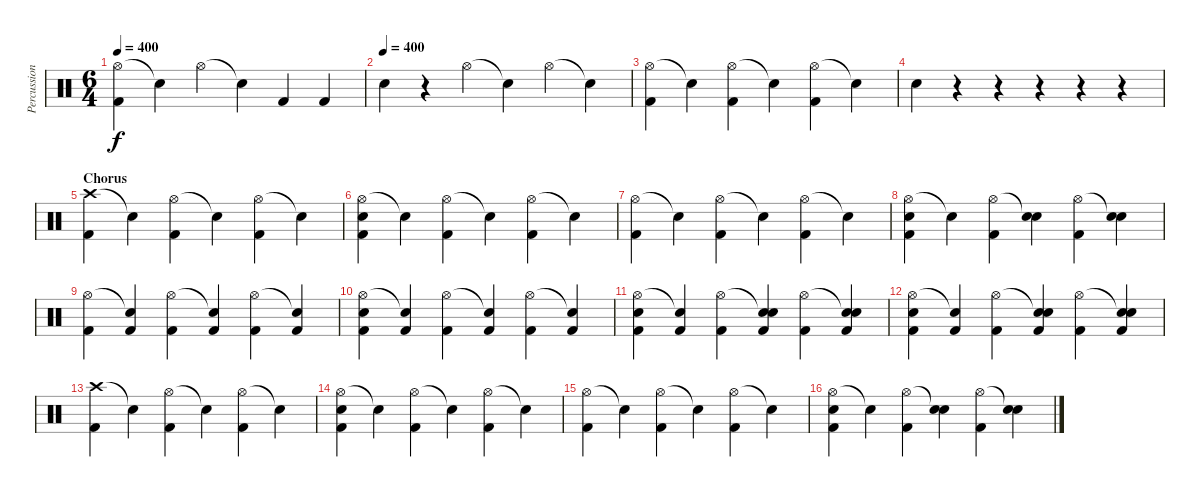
\track ("Percussion" "Percussion") {instrument percussion}
\staff {score}
\articulation defaults
\ts (6 4)
\tempo 400
\clef neutral
\ks c
("Hi-Hat (open)" "Kick (hit) 2").4{dy f} "Snare (hit)"{t}.4 "Hi-Hat (open)".4 "Snare (hit)"{t}.4 "Kick (hit) 2".4 "Kick (hit) 2".4 |
\tempo (400)
"Snare (hit) 2".4 r.4 "Hi-Hat (open)".4 "Snare (hit)"{t}.4 "Hi-Hat (open)".4 "Snare (hit)"{t}.4 |
("Hi-Hat (open)" "Kick (hit) 2").4 "Snare (hit)"{t}.4 ("Hi-Hat (open)" "Kick (hit) 2").4 "Snare (hit)"{t}.4 ("Hi-Hat (open)" "Kick (hit) 2").4 "Snare (hit)"{t}.4 |
"Snare (hit) 2".4 r.4 r.4 r.4 r.4 r.4 |
\section ("" "Chorus")
("Crash high (hit)" "Kick (hit) 2").4 "Snare (hit)"{t}.4 ("Hi-Hat (open)" "Kick (hit) 2").4 "Snare (hit)"{t}.4 ("Hi-Hat (open)" "Kick (hit) 2").4 "Snare (hit)"{t}.4 |
("Hi-Hat (open)" "Kick (hit) 2" "Snare (hit) 2").4 "Snare (hit)"{t}.4 ("Hi-Hat (open)" "Kick (hit) 2").4 "Snare (hit)"{t}.4 ("Hi-Hat (open)" "Kick (hit) 2").4 "Snare (hit)"{t}.4 |
("Hi-Hat (open)" "Kick (hit) 2").4 "Snare (hit)"{t}.4 ("Hi-Hat (open)" "Kick (hit) 2").4 "Snare (hit)"{t}.4 ("Hi-Hat (open)" "Kick (hit) 2").4 "Snare (hit)"{t}.4 |
("Hi-Hat (open)" "Kick (hit) 2" "Snare (hit) 2").4 "Snare (hit)"{t}.4 ("Hi-Hat (open)" "Kick (hit) 2").4 ("Snare (hit)"{t} "Snare (hit) 2").4 ("Hi-Hat (open)" "Kick (hit) 2").4 ("Snare (hit)"{t} "Snare (hit) 2").4 |
("Hi-Hat (open)" "Kick (hit) 2").4 ("Snare (hit)"{t} "Kick (hit) 2").4 ("Hi-Hat (open)" "Kick (hit) 2").4 ("Snare (hit)"{t} "Kick (hit) 2").4 ("Hi-Hat (open)" "Kick (hit) 2").4 ("Snare (hit)"{t} "Kick (hit) 2").4 |
("Hi-Hat (open)" "Kick (hit) 2" "Snare (hit) 2").4 ("Snare (hit)"{t} "Kick (hit) 2").4 ("Hi-Hat (open)" "Kick (hit) 2").4 ("Snare (hit)"{t} "Kick (hit) 2").4 ("Hi-Hat (open)" "Kick (hit) 2").4 ("Snare (hit)"{t} "Kick (hit) 2").4 |
("Hi-Hat (open)" "Snare (hit) 2" "Kick (hit) 2").4 ("Snare (hit)"{t} "Kick (hit) 2").4 ("Hi-Hat (open)" "Kick (hit) 2").4 ("Snare (hit)"{t} "Snare (hit) 2" "Kick (hit) 2").4 ("Hi-Hat (open)" "Kick (hit) 2").4 ("Snare (hit)"{t} "Snare (hit) 2" "Kick (hit) 2").4 |
("Hi-Hat (open)" "Kick (hit) 2" "Snare (hit) 2").4 ("Snare (hit)"{t} "Kick (hit) 2").4 ("Hi-Hat (open)" "Kick (hit) 2").4 ("Snare (hit)"{t} "Snare (hit) 2" "Kick (hit) 2").4 ("Hi-Hat (open)" "Kick (hit) 2").4 ("Snare (hit)"{t} "Kick (hit) 2" "Snare (hit) 2").4 |
("Crash high (hit)" "Kick (hit) 2").4 "Snare (hit)"{t}.4 ("Hi-Hat (open)" "Kick (hit) 2").4 "Snare (hit)"{t}.4 ("Hi-Hat (open)" "Kick (hit) 2").4 "Snare (hit)"{t}.4 |
("Hi-Hat (open)" "Kick (hit) 2" "Snare (hit) 2").4 "Snare (hit)"{t}.4 ("Hi-Hat (open)" "Kick (hit) 2").4 "Snare (hit)"{t}.4 ("Hi-Hat (open)" "Kick (hit) 2").4 "Snare (hit)"{t}.4 |
("Hi-Hat (open)" "Kick (hit) 2").4 "Snare (hit)"{t}.4 ("Hi-Hat (open)" "Kick (hit) 2").4 "Snare (hit)"{t}.4 ("Hi-Hat (open)" "Kick (hit) 2").4 "Snare (hit)"{t}.4 |
("Hi-Hat (open)" "Kick (hit) 2" "Snare (hit) 2").4 "Snare (hit)"{t}.4 ("Hi-Hat (open)" "Kick (hit) 2").4 ("Snare (hit)"{t} "Snare (hit) 2").4 ("Hi-Hat (open)" "Kick (hit) 2").4 ("Snare (hit)"{t} "Snare (hit) 2").4
